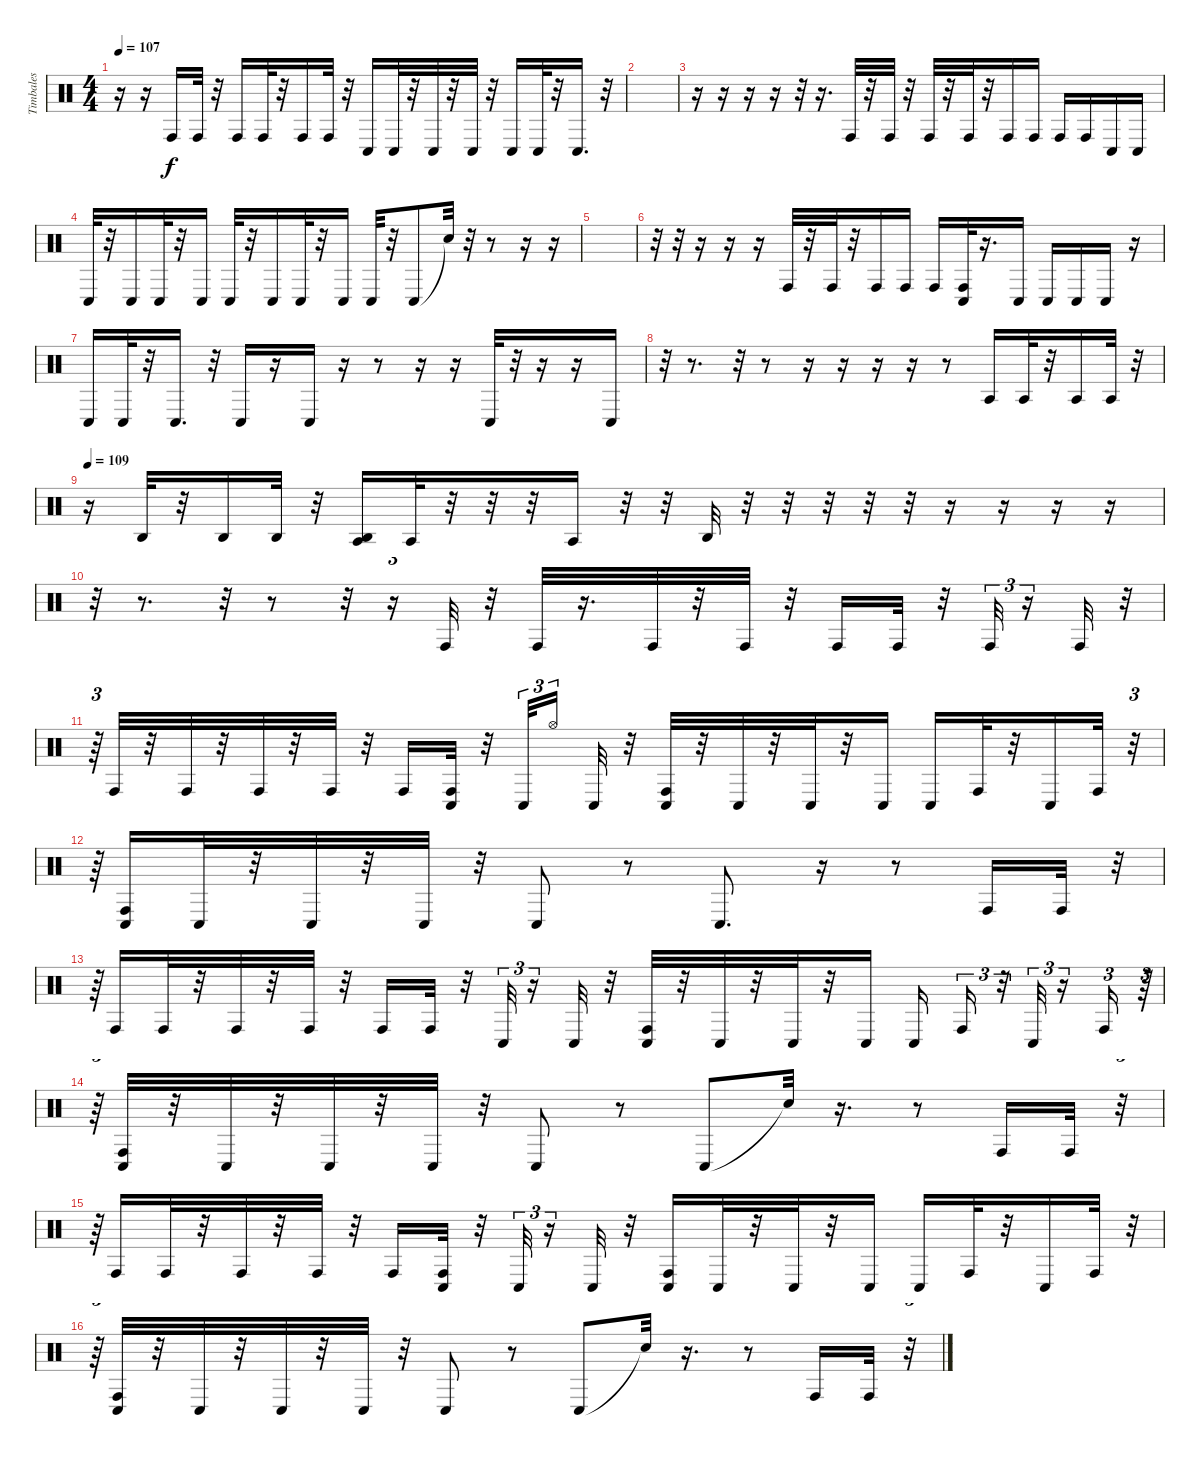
\track ("Timbales" "Timbales") {instrument percussion}
\staff {score}
\articulation defaults
\ts (4 4)
\tempo 107
\clef neutral
\ks c
r.16{dy f} r.16 "Conga high (hit)".16 "Conga high (hit)".32 r.32 "Conga high (hit)".16 "Conga high (hit)".32 r.32 "Conga high (hit)".16 "Conga high (hit)".32 r.32 "Conga low (hit)".16 "Conga low (hit)".32 r.32 "Conga low (hit)".32 r.32 "Conga low (hit)".32 r.32 "Conga low (hit)".16 "Conga low (hit)".32 r.32 "Conga low (hit)".16{d} r.32 |
|
r.16 r.16 r.16 r.16 r.32 r.16{d} "Conga high (hit)".32 r.32 "Conga high (hit)".32 r.32 "Conga high (hit)".32 r.32 "Conga high (hit)".32 r.32 "Conga high (hit)".16 "Conga high (hit)".16 "Conga high (hit)".16 "Conga high (hit)".16 "Conga low (hit)".16 "Conga low (hit)".16 |
"Conga low (hit)".32 r.32 "Conga low (hit)".16 "Conga low (hit)".32 r.32 "Conga low (hit)".16 "Conga low (hit)".32 r.32 "Conga low (hit)".16 "Conga low (hit)".32 r.32 "Conga low (hit)".16 "Conga low (hit)".32 r.32 "Conga low (hit)".8 "Snare (hit)"{t}.32 r.32 r.8 r.16 r.16 |
|
r.32 r.32 r.16 r.16 r.16 "Conga high (hit)".32 r.32 "Conga high (hit)".32 r.32 "Conga high (hit)".16 "Conga high (hit)".16 "Conga high (hit)".16 ("Conga high (hit)" "Conga low (hit)").32 r.16{d} "Conga low (hit)".16 "Conga low (hit)".16 "Conga low (hit)".16 "Conga low (hit)".16 r.16 |
"Conga low (hit)".16 "Conga low (hit)".32 r.32 "Conga low (hit)".16{d} r.32 "Conga low (hit)".16 r.16 "Conga low (hit)".16 r.16 r.8 r.16 r.16 "Conga low (hit)".32 r.32 r.16 r.16 "Conga low (hit)".16 |
r.32 r.8{d} r.32 r.8 r.16 r.16 r.16 r.16 r.8 "Agogo tow (hit)".16 "Agogo tow (hit)".32 r.32 "Agogo tow (hit)".16 "Agogo tow (hit)".32 r.32 |
\tempo 109
r.16 "Agogo high (hit)".32 r.32 "Agogo high (hit)".16 "Agogo high (hit)".32 r.32 ("Agogo high (hit)" "Agogo tow (hit)").16 "Agogo tow (hit)".32 r.32 r.32 r.32 "Agogo tow (hit)".16 r.32 r.32 "Agogo high (hit)".32 r.32 r.32 r.32 r.32 r.32 r.16 r.16 r.16 r.16 |
r.32 r.8{d} r.32 r.8 r.32 r.16{tu (3 2)} "Conga high (hit)".32 r.32 "Conga high (hit)".32 r.16{d} "Conga high (hit)".32 r.32 "Conga high (hit)".32 r.32 "Conga high (hit)".16 "Conga high (hit)".32 r.32 "Conga high (hit)".32{tu (3 2)} r.16{tu (3 2)} "Conga high (hit)".32 r.32{tu (3 2)} |
r.64{tu (3 2)} "Conga high (hit)".32 r.32 "Conga high (hit)".32 r.32 "Conga high (hit)".32 r.32 "Conga high (hit)".32 r.32 "Conga high (hit)".16 ("Conga low (hit)" "Conga high (hit)").32 r.32 "Conga low (hit)".32{tu (3 2)} "Hi-Hat (open)".16{tu (3 2) beam splitsecondary} "Conga low (hit)".32 r.32 ("Conga low (hit)" "Conga high (hit)").32 r.32 "Conga low (hit)".32 r.32 "Conga low (hit)".32 r.32 "Conga low (hit)".16 "Conga low (hit)".16 "Conga high (hit)".32 r.32 "Conga low (hit)".16 "Conga high (hit)".32 r.32{tu (3 2)} |
r.64{tu (3 2)} ("Conga high (hit)" "Conga low (hit)").16 "Conga low (hit)".32 r.32 "Conga low (hit)".32 r.32 "Conga low (hit)".32 r.32 "Conga low (hit)".8 r.8 "Conga low (hit)".8{d} r.16 r.8 "Conga high (hit)".16 "Conga high (hit)".32 r.32{tu (3 2)} |
r.64{tu (3 2)} "Conga high (hit)".16 "Conga high (hit)".32 r.32 "Conga high (hit)".32 r.32 "Conga high (hit)".32 r.32 "Conga high (hit)".16 "Conga high (hit)".32 r.32 "Conga low (hit)".32{tu (3 2)} r.16{tu (3 2)} "Conga low (hit)".32 r.32 ("Conga low (hit)" "Conga high (hit)").32 r.32 "Conga low (hit)".32 r.32 "Conga low (hit)".32 r.32 "Conga low (hit)".16 "Conga low (hit)".16 "Conga high (hit)".16{tu (3 2)} r.32{tu (3 2)} "Conga low (hit)".32{tu (3 2)} r.16{tu (3 2)} "Conga high (hit)".16{tu (3 2)} r.64{tu (3 2)} |
r.64{tu (3 2)} ("Conga high (hit)" "Conga low (hit)").32 r.32 "Conga low (hit)".32 r.32 "Conga low (hit)".32 r.32 "Conga low (hit)".32 r.32 "Conga low (hit)".8 r.8 "Conga low (hit)".8 "Snare (hit)"{t}.32 r.16{d} r.8 "Conga high (hit)".16 "Conga high (hit)".32 r.32{tu (3 2)} |
r.64{tu (3 2)} "Conga high (hit)".16 "Conga high (hit)".32 r.32 "Conga high (hit)".32 r.32 "Conga high (hit)".32 r.32 "Conga high (hit)".16 ("Conga low (hit)" "Conga high (hit)").32 r.32 "Conga low (hit)".32{tu (3 2)} r.16{tu (3 2)} "Conga low (hit)".32 r.32 ("Conga low (hit)" "Conga high (hit)").16 "Conga low (hit)".32 r.32 "Conga low (hit)".32 r.32 "Conga low (hit)".16 "Conga low (hit)".16 "Conga high (hit)".32 r.32 "Conga low (hit)".16 "Conga high (hit)".32 r.32{tu (3 2)} |
r.64{tu (3 2)} ("Conga high (hit)" "Conga low (hit)").32 r.32 "Conga low (hit)".32 r.32 "Conga low (hit)".32 r.32 "Conga low (hit)".32 r.32 "Conga low (hit)".8 r.8 "Conga low (hit)".8 "Snare (hit)"{t}.32 r.16{d} r.8 "Conga high (hit)".16 "Conga high (hit)".32 r.32{tu (3 2)}
